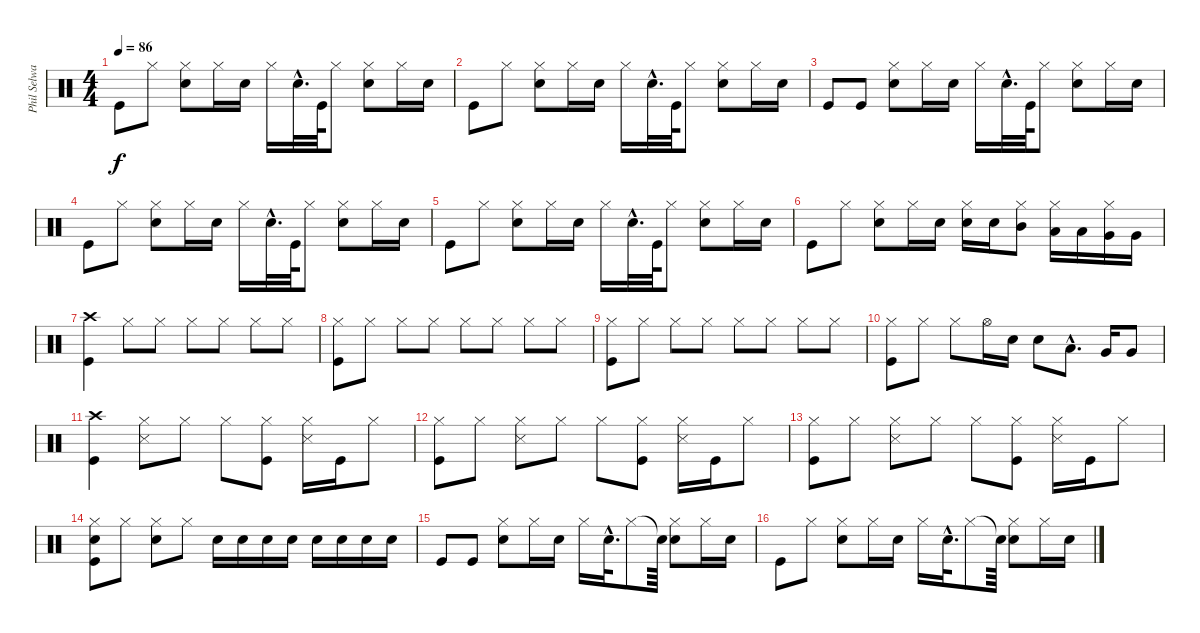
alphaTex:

\track ("Phil Selway" "Phil Selwa") {instrument percussion}
\staff {score}
\articulation defaults
\ts (4 4)
\tempo 86
\clef neutral
\ks c "Kick (hit)".8{dy f} "Hi-Hat (closed)".8
("Hi-Hat (closed)" "Electric Snare (hit)").8 "Hi-Hat (closed)".16 "Electric Snare (hit)".16 "Hi-Hat (closed)".16 "Electric Snare (hit)"{hac}.32{d} "Kick (hit)".64 "Hi-Hat (closed)".8 ("Hi-Hat (closed)" "Electric Snare (hit)").8 "Hi-Hat (closed)".16 "Electric Snare (hit)".16 |
"Kick (hit)".8 "Hi-Hat (closed)".8 ("Hi-Hat (closed)" "Electric Snare (hit)").8 "Hi-Hat (closed)".16 "Electric Snare (hit)".16 "Hi-Hat (closed)".16 "Electric Snare (hit)"{hac}.32{d} "Kick (hit)".64 "Hi-Hat (closed)".8 ("Hi-Hat (closed)" "Electric Snare (hit)").8 "Hi-Hat (closed)".16 "Electric Snare (hit)".16 |
"Kick (hit)".8 "Kick (hit)".8 ("Hi-Hat (closed)" "Electric Snare (hit)").8 "Hi-Hat (closed)".16 "Electric Snare (hit)".16 "Hi-Hat (closed)".16 "Electric Snare (hit)"{hac}.32{d} "Kick (hit)".64 "Hi-Hat (closed)".8 ("Hi-Hat (closed)" "Electric Snare (hit)").8 "Hi-Hat (closed)".16 "Electric Snare (hit)".16 |
"Kick (hit)".8 "Hi-Hat (closed)".8 ("Hi-Hat (closed)" "Electric Snare (hit)").8 "Hi-Hat (closed)".16 "Electric Snare (hit)".16 "Hi-Hat (closed)".16 "Electric Snare (hit)"{hac}.32{d} "Kick (hit)".64 "Hi-Hat (closed)".8 ("Hi-Hat (closed)" "Electric Snare (hit)").8 "Hi-Hat (closed)".16 "Electric Snare (hit)".16 |
"Kick (hit)".8 "Hi-Hat (closed)".8 ("Hi-Hat (closed)" "Electric Snare (hit)").8 "Hi-Hat (closed)".16 "Electric Snare (hit)".16 "Hi-Hat (closed)".16 "Electric Snare (hit)"{hac}.32{d} "Kick (hit)".64 "Hi-Hat (closed)".8 ("Hi-Hat (closed)" "Electric Snare (hit)").8 "Hi-Hat (closed)".16 "Electric Snare (hit)".16 |
"Kick (hit)".8 "Hi-Hat (closed)".8 ("Hi-Hat (closed)" "Electric Snare (hit)").8 "Hi-Hat (closed)".16 "Electric Snare (hit)".16 ("Hi-Hat (closed)" "Electric Snare (hit)").16 "Electric Snare (hit)".16 ("Hi-Hat (closed)" "Mid Tom (hit)").8 ("Hi-Hat (closed)" "Low Tom (hit)").16 "Low Tom (hit)".16 ("Hi-Hat (closed)" "Very Low Tom (hit)").16 "Very Low Tom (hit)".16 |
("Kick (hit)" "Crash high (hit)").4 "Hi-Hat (closed)".8 "Hi-Hat (closed)".8 "Hi-Hat (closed)".8 "Hi-Hat (closed)".8 "Hi-Hat (closed)".8 "Hi-Hat (closed)".8 |
("Kick (hit)" "Hi-Hat (closed)").8 "Hi-Hat (closed)".8 "Hi-Hat (closed)".8 "Hi-Hat (closed)".8 "Hi-Hat (closed)".8 "Hi-Hat (closed)".8 "Hi-Hat (closed)".8 "Hi-Hat (closed)".8 |
("Kick (hit)" "Hi-Hat (closed)").8 "Hi-Hat (closed)".8 "Hi-Hat (closed)".8 "Hi-Hat (closed)".8 "Hi-Hat (closed)".8 "Hi-Hat (closed)".8 "Hi-Hat (closed)".8 "Hi-Hat (closed)".8 |
("Kick (hit)" "Hi-Hat (closed)").8 "Hi-Hat (closed)".8 "Hi-Hat (closed)".8 "Hi-Hat (open)".16 "Electric Snare (hit)".16 "Electric Snare (hit)".8 "Low Tom (hit)"{hac}.8{d} "Very Low Tom (hit)".16 "Very Low Tom (hit)".8 |
("Kick (hit)" "Crash high (hit)").4 ("Hi-Hat (closed)" "Snare (side stick) 3").8 "Hi-Hat (closed)".8 "Hi-Hat (closed)".8 ("Kick (hit)" "Hi-Hat (closed)").8 ("Hi-Hat (closed)" "Snare (side stick) 3").16 "Kick (hit)".16 "Hi-Hat (closed)".8 |
("Kick (hit)" "Hi-Hat (closed)").8 "Hi-Hat (closed)".8 ("Hi-Hat (closed)" "Snare (side stick) 3").8 "Hi-Hat (closed)".8 "Hi-Hat (closed)".8 ("Kick (hit)" "Hi-Hat (closed)").8 ("Hi-Hat (closed)" "Snare (side stick) 3").16 "Kick (hit)".16 "Hi-Hat (closed)".8 |
("Kick (hit)" "Hi-Hat (closed)").8 "Hi-Hat (closed)".8 ("Hi-Hat (closed)" "Snare (side stick) 3").8 "Hi-Hat (closed)".8 "Hi-Hat (closed)".8 ("Kick (hit)" "Hi-Hat (closed)").8 ("Hi-Hat (closed)" "Snare (side stick) 3").16 "Kick (hit)".16 "Hi-Hat (closed)".8 |
("Kick (hit)" "Hi-Hat (closed)" "Electric Snare (hit)").8 "Hi-Hat (closed)".8 ("Hi-Hat (closed)" "Electric Snare (hit)").8 "Hi-Hat (closed)".8 "Electric Snare (hit)".16 "Electric Snare (hit)".16 "Electric Snare (hit)".16 "Electric Snare (hit)".16 "Electric Snare (hit)".16 "Electric Snare (hit)".16 "Electric Snare (hit)".16 "Electric Snare (hit)".16 |
"Kick (hit)".8 "Kick (hit)".8 ("Hi-Hat (closed)" "Electric Snare (hit)").8 "Hi-Hat (closed)".16 "Electric Snare (hit)".16 "Hi-Hat (closed)".16 "Electric Snare (hit)"{hac}.32{d} "Hi-Hat (closed)".8 "Snare (hit)"{t}.64 ("Hi-Hat (closed)" "Electric Snare (hit)").8 "Hi-Hat (closed)".16 "Electric Snare (hit)".16 |
"Kick (hit)".8 "Hi-Hat (closed)".8 ("Hi-Hat (closed)" "Electric Snare (hit)").8 "Hi-Hat (closed)".16 "Electric Snare (hit)".16 "Hi-Hat (closed)".16 "Electric Snare (hit)"{hac}.32{d} "Hi-Hat (closed)".8 "Snare (hit)"{t}.64 ("Hi-Hat (closed)" "Electric Snare (hit)").8 "Hi-Hat (closed)".16 "Electric Snare (hit)".16
